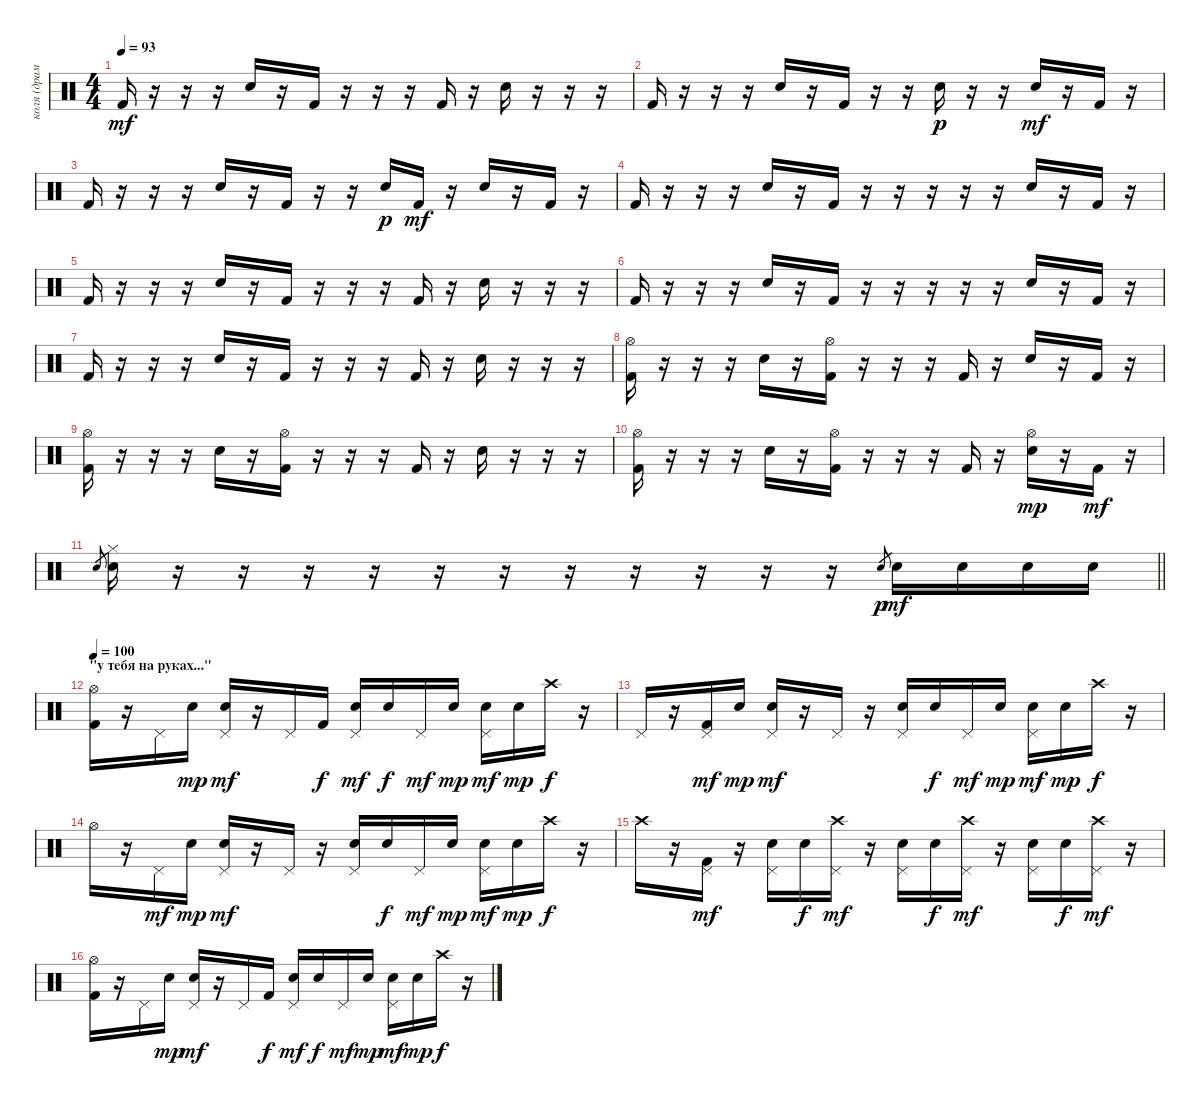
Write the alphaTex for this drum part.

\track ("коля (драммы)" "коля (драм") {instrument percussion}
\staff {score}
\articulation defaults
\ts (4 4)
\tempo 93
\clef neutral
\ks c "Kick (hit) 2".16{dy mf}
r.16 r.16 r.16 "Snare (hit) 2".16 r.16 "Kick (hit) 2".16 r.16 r.16 r.16 "Kick (hit) 2".16 r.16 "Snare (hit) 2".16 r.16 r.16 r.16 |
"Kick (hit) 2".16 r.16 r.16 r.16 "Snare (hit) 2".16 r.16 "Kick (hit) 2".16 r.16 r.16 "Snare (hit) 2".16{dy p} r.16 r.16 "Snare (hit) 2".16{dy mf} r.16 "Kick (hit) 2".16 r.16 |
"Kick (hit) 2".16 r.16 r.16 r.16 "Snare (hit) 2".16 r.16 "Kick (hit) 2".16 r.16 r.16 "Snare (hit) 2".16{dy p} "Kick (hit) 2".16{dy mf} r.16 "Snare (hit) 2".16 r.16 "Kick (hit) 2".16 r.16 |
"Kick (hit) 2".16 r.16 r.16 r.16 "Snare (hit) 2".16 r.16 "Kick (hit) 2".16 r.16 r.16 r.16 r.16 r.16 "Snare (hit) 2".16 r.16 "Kick (hit) 2".16 r.16 |
"Kick (hit) 2".16 r.16 r.16 r.16 "Snare (hit) 2".16 r.16 "Kick (hit) 2".16 r.16 r.16 r.16 "Kick (hit) 2".16 r.16 "Snare (hit) 2".16 r.16 r.16 r.16 |
"Kick (hit) 2".16 r.16 r.16 r.16 "Snare (hit) 2".16 r.16 "Kick (hit) 2".16 r.16 r.16 r.16 r.16 r.16 "Snare (hit) 2".16 r.16 "Kick (hit) 2".16 r.16 |
"Kick (hit) 2".16 r.16 r.16 r.16 "Snare (hit) 2".16 r.16 "Kick (hit) 2".16 r.16 r.16 r.16 "Kick (hit) 2".16 r.16 "Snare (hit) 2".16 r.16 r.16 r.16 |
("Hi-Hat (open)" "Kick (hit) 2").16 r.16 r.16 r.16 "Snare (hit) 2".16 r.16 ("Hi-Hat (open)" "Kick (hit) 2").16 r.16 r.16 r.16 "Kick (hit) 2".16 r.16 "Snare (hit) 2".16 r.16 "Kick (hit) 2".16 r.16 |
("Hi-Hat (open)" "Kick (hit) 2").16 r.16 r.16 r.16 "Snare (hit) 2".16 r.16 ("Hi-Hat (open)" "Kick (hit) 2").16 r.16 r.16 r.16 "Kick (hit) 2".16 r.16 "Snare (hit) 2".16 r.16 r.16 r.16 |
("Hi-Hat (open)" "Kick (hit) 2").16 r.16 r.16 r.16 "Snare (hit) 2".16 r.16 ("Hi-Hat (open)" "Kick (hit) 2").16 r.16 r.16 r.16 "Kick (hit) 2".16 r.16 ("Snare (hit) 2" "Hi-Hat (open)").16{dy mp} r.16 "Kick (hit) 2".16{dy mf} r.16 |
\barLineRight lightlight "Snare (hit) 2".8{gr}
("Snare (hit) 2" "Hi-Hat (closed)").16 r.16 r.16 r.16 r.16 r.16 r.16 r.16 r.16 r.16 r.16 r.16 "Snare (hit) 2".8{gr dy p} "Snare (hit) 2".16{dy mf} "Snare (hit) 2".16 "Snare (hit) 2".16 "Snare (hit) 2".16 |
\section ("" "\"у тебя на руках...\"")
\tempo 100
("Hi-Hat (open)" "Kick (hit) 2").16 r.16 "Pedal Hi-Hat (hit)".16 "Snare (hit) 2".16{dy mp} ("Snare (hit) 2" "Pedal Hi-Hat (hit)").16{dy mf} r.16 "Pedal Hi-Hat (hit)".16 "Kick (hit) 2".16{dy f} ("Snare (hit) 2" "Pedal Hi-Hat (hit)").16{dy mf} "Snare (hit) 2".16{dy f} "Pedal Hi-Hat (hit)".16{dy mf} "Snare (hit) 2".16{dy mp} ("Snare (hit) 2" "Pedal Hi-Hat (hit)").16{dy mf} "Snare (hit) 2".16{dy mp} "Crash high (hit)".16{dy f} r.16 |
"Pedal Hi-Hat (hit)".16 r.16 ("Pedal Hi-Hat (hit)" "Kick (hit) 2").16{dy mf} "Snare (hit) 2".16{dy mp} ("Snare (hit) 2" "Pedal Hi-Hat (hit)").16{dy mf} r.16 "Pedal Hi-Hat (hit)".16 r.16 ("Snare (hit) 2" "Pedal Hi-Hat (hit)").16 "Snare (hit) 2".16{dy f} "Pedal Hi-Hat (hit)".16{dy mf} "Snare (hit) 2".16{dy mp} ("Snare (hit) 2" "Pedal Hi-Hat (hit)").16{dy mf} "Snare (hit) 2".16{dy mp} "Crash high (hit)".16{dy f} r.16 |
"Hi-Hat (open)".16 r.16 "Pedal Hi-Hat (hit)".16{dy mf} "Snare (hit) 2".16{dy mp} ("Snare (hit) 2" "Pedal Hi-Hat (hit)").16{dy mf} r.16 "Pedal Hi-Hat (hit)".16 r.16 ("Snare (hit) 2" "Pedal Hi-Hat (hit)").16 "Snare (hit) 2".16{dy f} "Pedal Hi-Hat (hit)".16{dy mf} "Snare (hit) 2".16{dy mp} ("Snare (hit) 2" "Pedal Hi-Hat (hit)").16{dy mf} "Snare (hit) 2".16{dy mp} "Crash high (hit)".16{dy f} r.16 |
"Crash high (hit)".16 r.16 ("Pedal Hi-Hat (hit)" "Kick (hit) 2").16{dy mf} r.16 ("Snare (hit) 2" "Pedal Hi-Hat (hit)").16 "Snare (hit) 2".16{dy f} ("Crash high (hit)" "Pedal Hi-Hat (hit)").16{dy mf} r.16 ("Snare (hit) 2" "Pedal Hi-Hat (hit)").16 "Snare (hit) 2".16{dy f} ("Crash high (hit)" "Pedal Hi-Hat (hit)").16{dy mf} r.16 ("Snare (hit) 2" "Pedal Hi-Hat (hit)").16 "Snare (hit) 2".16{dy f} ("Crash high (hit)" "Pedal Hi-Hat (hit)").16{dy mf} r.16 |
("Hi-Hat (open)" "Kick (hit) 2").16 r.16 "Pedal Hi-Hat (hit)".16 "Snare (hit) 2".16{dy mp} ("Snare (hit) 2" "Pedal Hi-Hat (hit)").16{dy mf} r.16 "Pedal Hi-Hat (hit)".16 "Kick (hit) 2".16{dy f} ("Snare (hit) 2" "Pedal Hi-Hat (hit)").16{dy mf} "Snare (hit) 2".16{dy f} "Pedal Hi-Hat (hit)".16{dy mf} "Snare (hit) 2".16{dy mp} ("Snare (hit) 2" "Pedal Hi-Hat (hit)").16{dy mf} "Snare (hit) 2".16{dy mp} "Crash high (hit)".16{dy f} r.16
